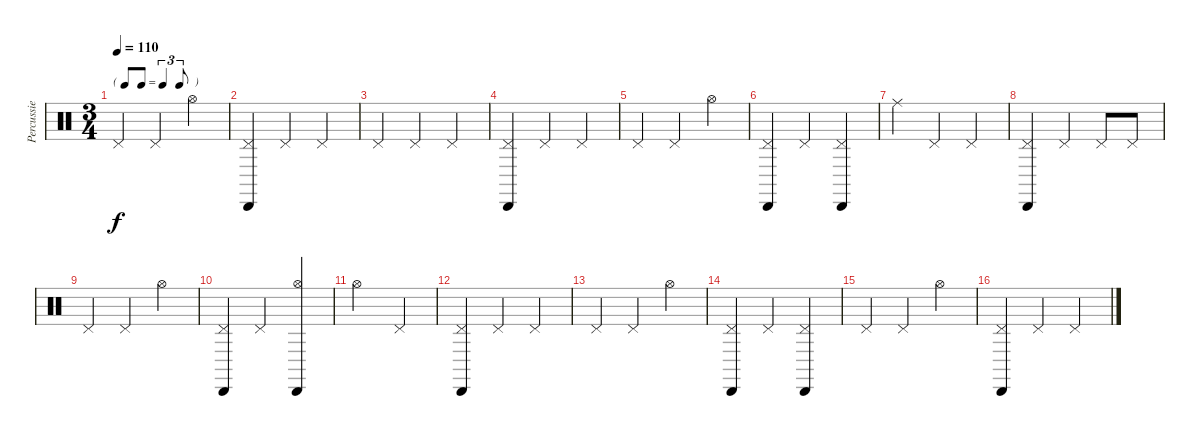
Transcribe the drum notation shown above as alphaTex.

\track ("Percussie" "Percussie") {instrument percussion}
\staff {score}
\articulation defaults
\ts (3 4)
\tf triplet8th
\tempo 110
\clef neutral
\ks c "Pedal Hi-Hat (hit)".4{dy f} "Pedal Hi-Hat (hit)".4 "Hi-Hat (open)".4
|
("Cabasa (hit)" "Pedal Hi-Hat (hit)").4 "Pedal Hi-Hat (hit)".4 "Pedal Hi-Hat (hit)".4 |
"Pedal Hi-Hat (hit)".4 "Pedal Hi-Hat (hit)".4 "Pedal Hi-Hat (hit)".4 |
("Cabasa (hit)" "Pedal Hi-Hat (hit)").4 "Pedal Hi-Hat (hit)".4 "Pedal Hi-Hat (hit)".4 |
"Pedal Hi-Hat (hit)".4 "Pedal Hi-Hat (hit)".4 "Hi-Hat (open)".4 |
("Cabasa (hit)" "Pedal Hi-Hat (hit)").4 "Pedal Hi-Hat (hit)".4 ("Cabasa (hit)" "Pedal Hi-Hat (hit)").4 |
"Ride (middle)".4 "Pedal Hi-Hat (hit)".4 "Pedal Hi-Hat (hit)".4 |
("Cabasa (hit)" "Pedal Hi-Hat (hit)").4 "Pedal Hi-Hat (hit)".4 "Pedal Hi-Hat (hit)".8 "Pedal Hi-Hat (hit)".8 |
"Pedal Hi-Hat (hit)".4 "Pedal Hi-Hat (hit)".4 "Hi-Hat (open)".4 |
("Cabasa (hit)" "Pedal Hi-Hat (hit)").4 "Pedal Hi-Hat (hit)".4 ("Hi-Hat (open)" "Cabasa (hit)").4 |
"Hi-Hat (open)".2 "Pedal Hi-Hat (hit)".4 |
("Cabasa (hit)" "Pedal Hi-Hat (hit)").4 "Pedal Hi-Hat (hit)".4 "Pedal Hi-Hat (hit)".4 |
"Pedal Hi-Hat (hit)".4 "Pedal Hi-Hat (hit)".4 "Hi-Hat (open)".4 |
("Cabasa (hit)" "Pedal Hi-Hat (hit)").4 "Pedal Hi-Hat (hit)".4 ("Cabasa (hit)" "Pedal Hi-Hat (hit)").4 |
"Pedal Hi-Hat (hit)".4 "Pedal Hi-Hat (hit)".4 "Hi-Hat (open)".4 |
("Cabasa (hit)" "Pedal Hi-Hat (hit)").4 "Pedal Hi-Hat (hit)".4 "Pedal Hi-Hat (hit)".4
